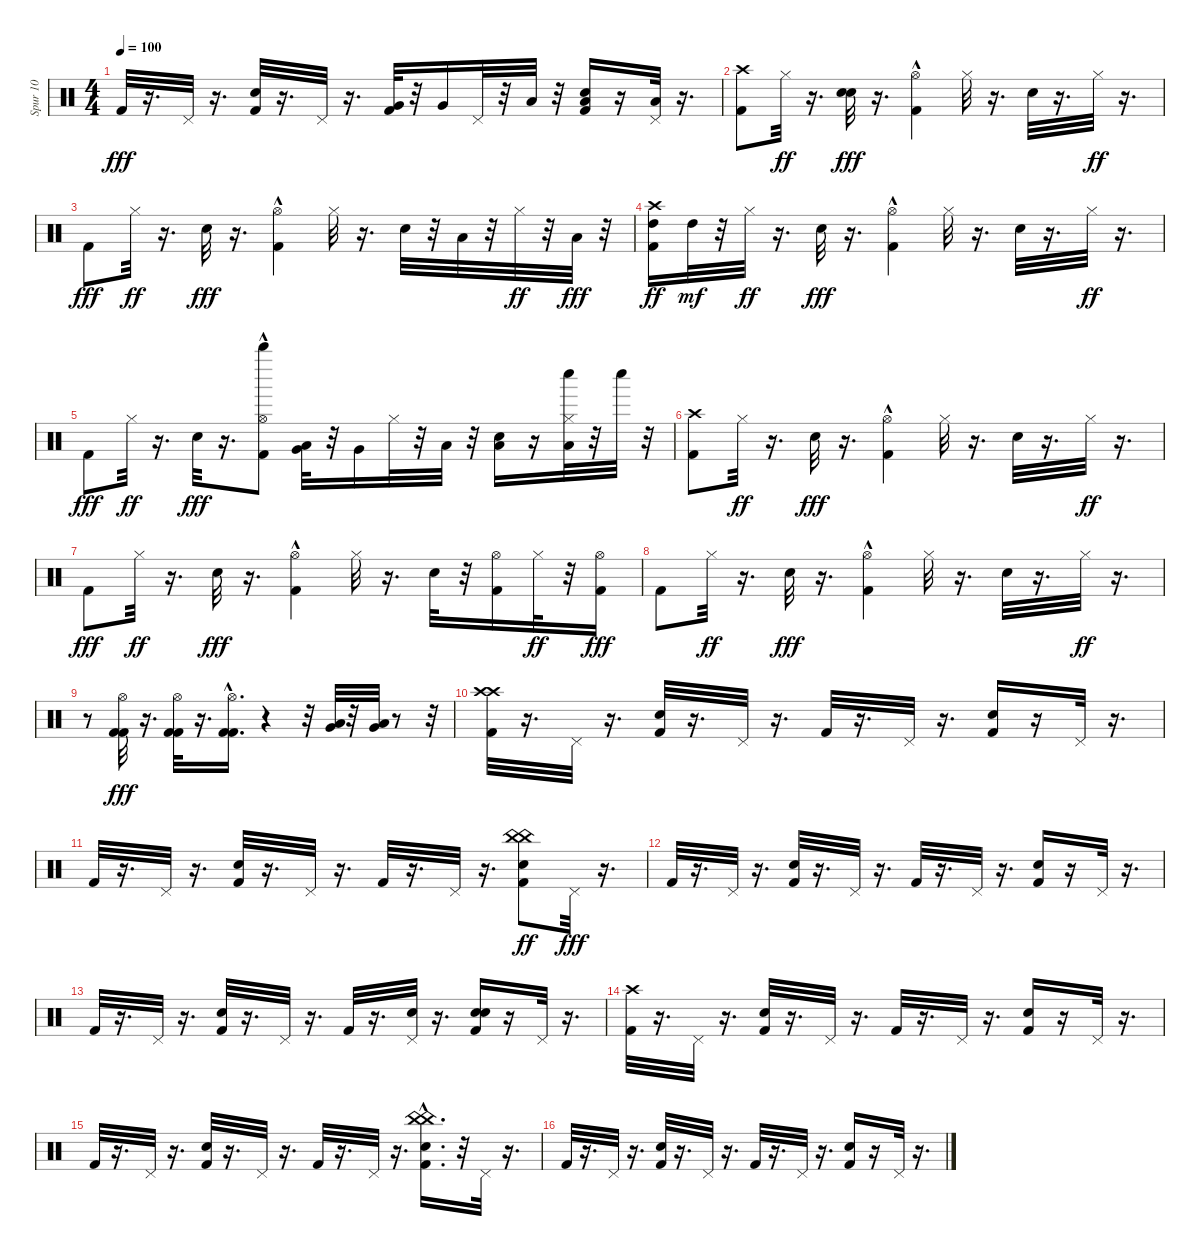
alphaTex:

\track ("Spur 10" "Spur 10") {instrument percussion}
\staff {score}
\articulation defaults
\ts (4 4)
\tempo 100
\clef neutral
\ks c "Kick (hit) 2".32{dy fff}
r.16{d} "Pedal Hi-Hat (hit)".32 r.16{d} ("Electric Snare (hit)" "Kick (hit) 2").32 r.16{d} "Pedal Hi-Hat (hit)".32 r.16{d} ("Kick (hit) 2" "Very Low Tom (hit)").32 r.32 "Very Low Tom (hit)".16 "Pedal Hi-Hat (hit)".32 r.32 "Low Tom (hit)".32 r.32 ("Electric Snare (hit)" "Kick (hit) 2" "Low Tom (hit)").16 r.16 ("Pedal Hi-Hat (hit)" "Low Tom (hit)").32 r.16{d} |
("Kick (hit) 2" "Crash high (hit)").8 "Hi-Hat (closed)".32{dy ff} r.16{d} ("Electric Snare (hit)" "Snare (hit) 2").32{dy fff} r.16{d} ("Kick (hit) 2"{hac} "Hi-Hat (open)").4 "Hi-Hat (closed)".32 r.16{d} "Electric Snare (hit)".32 r.16{d} "Hi-Hat (closed)".32{dy ff} r.16{d} |
"Kick (hit) 2".8{dy fff} "Hi-Hat (closed)".32{dy ff} r.16{d} "Electric Snare (hit)".32{dy fff} r.16{d} ("Kick (hit) 2"{hac} "Hi-Hat (open)").4 "Hi-Hat (closed)".32 r.16{d} "Electric Snare (hit)".32 r.32 "Low Tom (hit)".32 r.32 "Hi-Hat (closed)".32{dy ff} r.32 "Low Tom (hit)".32{dy fff} r.32 |
("Kick (hit) 2" "Crash high (hit)" "High Tom (hit)").16{dy ff} "High Tom (hit)".32{dy mf} r.32 "Hi-Hat (closed)".32{dy ff} r.16{d} "Electric Snare (hit)".32{dy fff} r.16{d} ("Kick (hit) 2"{hac} "Hi-Hat (open)").4 "Hi-Hat (closed)".32 r.16{d} "Electric Snare (hit)".32 r.16{d} "Hi-Hat (closed)".32{dy ff} r.16{d} |
"Kick (hit) 2".8{dy fff} "Hi-Hat (closed)".32{dy ff} r.16{d} "Electric Snare (hit)".32{dy fff} r.16{d} ("Kick (hit) 2"{hac} "Hi-Hat (open)" "Whistle high (hit)").8 ("Very Low Tom (hit)" "Low Tom (hit)").32 r.32 "Very Low Tom (hit)".16 "Hi-Hat (closed)".32 r.32 "Low Tom (hit)".32 r.32 ("Electric Snare (hit)" "Low Tom (hit)").16 r.16 ("Hi-Hat (closed)" "Low Tom (hit)" "Whistle low (hit)").32 r.32 "Whistle low (hit)".32 r.32 |
("Kick (hit) 2" "Crash high (hit)").8 "Hi-Hat (closed)".32{dy ff} r.16{d} "Electric Snare (hit)".32{dy fff} r.16{d} ("Kick (hit) 2"{hac} "Hi-Hat (open)").4 "Hi-Hat (closed)".32 r.16{d} "Electric Snare (hit)".32 r.16{d} "Hi-Hat (closed)".32{dy ff} r.16{d} |
"Kick (hit) 2".8{dy fff} "Hi-Hat (closed)".32{dy ff} r.16{d} "Electric Snare (hit)".32{dy fff} r.16{d} ("Kick (hit) 2"{hac} "Hi-Hat (open)").4 "Hi-Hat (closed)".32 r.16{d} "Electric Snare (hit)".32 r.32 ("Kick (hit) 2" "Hi-Hat (open)").16 "Hi-Hat (closed)".32{dy ff} r.32 ("Kick (hit) 2" "Hi-Hat (open)").16{dy fff} |
"Kick (hit) 2".8 "Hi-Hat (closed)".32{dy ff} r.16{d} "Electric Snare (hit)".32{dy fff} r.16{d} ("Kick (hit) 2"{hac} "Hi-Hat (open)").4 "Hi-Hat (closed)".32 r.16{d} "Electric Snare (hit)".32 r.16{d} "Hi-Hat (closed)".32{dy ff} r.16{d} |
r.8 ("Kick (hit) 2" "Hi-Hat (open)" "Kick (hit) 2").32{dy fff} r.16{d} ("Hi-Hat (open)" "Kick (hit) 2" "Kick (hit) 2").32 r.16{d} ("Kick (hit) 2"{hac} "Hi-Hat (open)" "Kick (hit) 2"{hac}).16{d} r.4 r.32 ("Very Low Tom (hit)" "Low Tom (hit)").32 r.32 ("Very Low Tom (hit)" "Low Tom (hit)").32 r.8 r.32 |
("Kick (hit) 2" "Crash high (hit)" "Crash high (hit)").32 r.16{d} "Pedal Hi-Hat (hit)".32 r.16{d} ("Electric Snare (hit)" "Kick (hit) 2").32 r.16{d} "Pedal Hi-Hat (hit)".32 r.16{d} "Kick (hit) 2".32 r.16{d} "Pedal Hi-Hat (hit)".32 r.16{d} ("Electric Snare (hit)" "Kick (hit) 2").16 r.16 "Pedal Hi-Hat (hit)".32 r.16{d} |
"Kick (hit) 2".32 r.16{d} "Pedal Hi-Hat (hit)".32 r.16{d} ("Electric Snare (hit)" "Kick (hit) 2").32 r.16{d} "Pedal Hi-Hat (hit)".32 r.16{d} "Kick (hit) 2".32 r.16{d} "Pedal Hi-Hat (hit)".32 r.16{d} ("Electric Snare (hit)" "Kick (hit) 2" "China (hit)" "China (hit)").8{dy ff} "Pedal Hi-Hat (hit)".32{dy fff} r.16{d} |
"Kick (hit) 2".32 r.16{d} "Pedal Hi-Hat (hit)".32 r.16{d} ("Electric Snare (hit)" "Kick (hit) 2").32 r.16{d} "Pedal Hi-Hat (hit)".32 r.16{d} "Kick (hit) 2".32 r.16{d} "Pedal Hi-Hat (hit)".32 r.16{d} ("Electric Snare (hit)" "Kick (hit) 2").16 r.16 "Pedal Hi-Hat (hit)".32 r.16{d} |
"Kick (hit) 2".32 r.16{d} "Pedal Hi-Hat (hit)".32 r.16{d} ("Electric Snare (hit)" "Kick (hit) 2").32 r.16{d} "Pedal Hi-Hat (hit)".32 r.16{d} "Kick (hit) 2".32 r.16{d} ("Pedal Hi-Hat (hit)" "Hand Clap (hit)").32 r.16{d} ("Electric Snare (hit)" "Kick (hit) 2" "Hand Clap (hit)").16 r.16 "Pedal Hi-Hat (hit)".32 r.16{d} |
("Kick (hit) 2" "Crash high (hit)").32 r.16{d} "Pedal Hi-Hat (hit)".32 r.16{d} ("Electric Snare (hit)" "Kick (hit) 2").32 r.16{d} "Pedal Hi-Hat (hit)".32 r.16{d} "Kick (hit) 2".32 r.16{d} "Pedal Hi-Hat (hit)".32 r.16{d} ("Electric Snare (hit)" "Kick (hit) 2").16 r.16 "Pedal Hi-Hat (hit)".32 r.16{d} |
"Kick (hit) 2".32 r.16{d} "Pedal Hi-Hat (hit)".32 r.16{d} ("Electric Snare (hit)" "Kick (hit) 2").32 r.16{d} "Pedal Hi-Hat (hit)".32 r.16{d} "Kick (hit) 2".32 r.16{d} "Pedal Hi-Hat (hit)".32 r.16{d} ("Electric Snare (hit)" "Kick (hit) 2" "China (hit)"{hac} "China (hit)"{hac}).16{d} r.32 "Pedal Hi-Hat (hit)".32 r.16{d} |
"Kick (hit) 2".32 r.16{d} "Pedal Hi-Hat (hit)".32 r.16{d} ("Electric Snare (hit)" "Kick (hit) 2").32 r.16{d} "Pedal Hi-Hat (hit)".32 r.16{d} "Kick (hit) 2".32 r.16{d} "Pedal Hi-Hat (hit)".32 r.16{d} ("Electric Snare (hit)" "Kick (hit) 2").16 r.16 "Pedal Hi-Hat (hit)".32 r.16{d}
